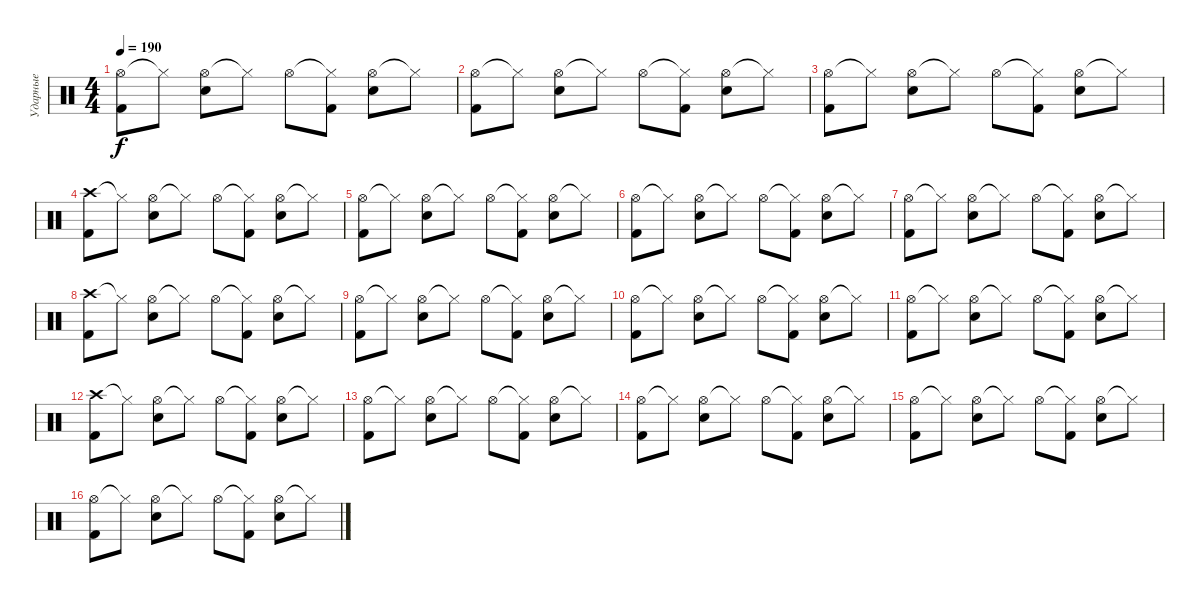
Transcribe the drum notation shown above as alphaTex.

\track ("Ударные" "Ударные") {instrument percussion}
\staff {score}
\articulation defaults
\ts (4 4)
\tempo 190
\clef neutral
\ks c
("Hi-Hat (open)" "Kick (hit) 2").8{dy f} "Hi-Hat (closed)"{t}.8 ("Hi-Hat (open)" "Snare (hit) 2").8 "Hi-Hat (closed)"{t}.8 "Hi-Hat (open)".8 ("Hi-Hat (closed)"{t} "Kick (hit) 2").8 ("Hi-Hat (open)" "Snare (hit) 2").8 "Hi-Hat (closed)"{t}.8 |
("Hi-Hat (open)" "Kick (hit) 2").8 "Hi-Hat (closed)"{t}.8 ("Hi-Hat (open)" "Snare (hit) 2").8 "Hi-Hat (closed)"{t}.8 "Hi-Hat (open)".8 ("Hi-Hat (closed)"{t} "Kick (hit) 2").8 ("Hi-Hat (open)" "Snare (hit) 2").8 "Hi-Hat (closed)"{t}.8 |
("Hi-Hat (open)" "Kick (hit) 2").8 "Hi-Hat (closed)"{t}.8 ("Hi-Hat (open)" "Snare (hit) 2").8 "Hi-Hat (closed)"{t}.8 "Hi-Hat (open)".8 ("Hi-Hat (closed)"{t} "Kick (hit) 2").8 ("Hi-Hat (open)" "Snare (hit) 2").8 "Hi-Hat (closed)"{t}.8 |
("Crash high (hit)" "Kick (hit) 2").8 "Hi-Hat (closed)"{t}.8 ("Hi-Hat (open)" "Snare (hit) 2").8 "Hi-Hat (closed)"{t}.8 "Hi-Hat (open)".8 ("Hi-Hat (closed)"{t} "Kick (hit) 2").8 ("Hi-Hat (open)" "Snare (hit) 2").8 "Hi-Hat (closed)"{t}.8 |
("Hi-Hat (open)" "Kick (hit) 2").8 "Hi-Hat (closed)"{t}.8 ("Hi-Hat (open)" "Snare (hit) 2").8 "Hi-Hat (closed)"{t}.8 "Hi-Hat (open)".8 ("Hi-Hat (closed)"{t} "Kick (hit) 2").8 ("Hi-Hat (open)" "Snare (hit) 2").8 "Hi-Hat (closed)"{t}.8 |
("Hi-Hat (open)" "Kick (hit) 2").8 "Hi-Hat (closed)"{t}.8 ("Hi-Hat (open)" "Snare (hit) 2").8 "Hi-Hat (closed)"{t}.8 "Hi-Hat (open)".8 ("Hi-Hat (closed)"{t} "Kick (hit) 2").8 ("Hi-Hat (open)" "Snare (hit) 2").8 "Hi-Hat (closed)"{t}.8 |
("Hi-Hat (open)" "Kick (hit) 2").8 "Hi-Hat (closed)"{t}.8 ("Hi-Hat (open)" "Snare (hit) 2").8 "Hi-Hat (closed)"{t}.8 "Hi-Hat (open)".8 ("Hi-Hat (closed)"{t} "Kick (hit) 2").8 ("Hi-Hat (open)" "Snare (hit) 2").8 "Hi-Hat (closed)"{t}.8 |
("Crash high (hit)" "Kick (hit) 2").8 "Hi-Hat (closed)"{t}.8 ("Hi-Hat (open)" "Snare (hit) 2").8 "Hi-Hat (closed)"{t}.8 "Hi-Hat (open)".8 ("Hi-Hat (closed)"{t} "Kick (hit) 2").8 ("Hi-Hat (open)" "Snare (hit) 2").8 "Hi-Hat (closed)"{t}.8 |
("Hi-Hat (open)" "Kick (hit) 2").8 "Hi-Hat (closed)"{t}.8 ("Hi-Hat (open)" "Snare (hit) 2").8 "Hi-Hat (closed)"{t}.8 "Hi-Hat (open)".8 ("Hi-Hat (closed)"{t} "Kick (hit) 2").8 ("Hi-Hat (open)" "Snare (hit) 2").8 "Hi-Hat (closed)"{t}.8 |
("Hi-Hat (open)" "Kick (hit) 2").8 "Hi-Hat (closed)"{t}.8 ("Hi-Hat (open)" "Snare (hit) 2").8 "Hi-Hat (closed)"{t}.8 "Hi-Hat (open)".8 ("Hi-Hat (closed)"{t} "Kick (hit) 2").8 ("Hi-Hat (open)" "Snare (hit) 2").8 "Hi-Hat (closed)"{t}.8 |
("Hi-Hat (open)" "Kick (hit) 2").8 "Hi-Hat (closed)"{t}.8 ("Hi-Hat (open)" "Snare (hit) 2").8 "Hi-Hat (closed)"{t}.8 "Hi-Hat (open)".8 ("Hi-Hat (closed)"{t} "Kick (hit) 2").8 ("Hi-Hat (open)" "Snare (hit) 2").8 "Hi-Hat (closed)"{t}.8 |
("Crash high (hit)" "Kick (hit) 2").8 "Hi-Hat (closed)"{t}.8 ("Hi-Hat (open)" "Snare (hit) 2").8 "Hi-Hat (closed)"{t}.8 "Hi-Hat (open)".8 ("Hi-Hat (closed)"{t} "Kick (hit) 2").8 ("Hi-Hat (open)" "Snare (hit) 2").8 "Hi-Hat (closed)"{t}.8 |
("Hi-Hat (open)" "Kick (hit) 2").8 "Hi-Hat (closed)"{t}.8 ("Hi-Hat (open)" "Snare (hit) 2").8 "Hi-Hat (closed)"{t}.8 "Hi-Hat (open)".8 ("Hi-Hat (closed)"{t} "Kick (hit) 2").8 ("Hi-Hat (open)" "Snare (hit) 2").8 "Hi-Hat (closed)"{t}.8 |
("Hi-Hat (open)" "Kick (hit) 2").8 "Hi-Hat (closed)"{t}.8 ("Hi-Hat (open)" "Snare (hit) 2").8 "Hi-Hat (closed)"{t}.8 "Hi-Hat (open)".8 ("Hi-Hat (closed)"{t} "Kick (hit) 2").8 ("Hi-Hat (open)" "Snare (hit) 2").8 "Hi-Hat (closed)"{t}.8 |
("Hi-Hat (open)" "Kick (hit) 2").8 "Hi-Hat (closed)"{t}.8 ("Hi-Hat (open)" "Snare (hit) 2").8 "Hi-Hat (closed)"{t}.8 "Hi-Hat (open)".8 ("Hi-Hat (closed)"{t} "Kick (hit) 2").8 ("Hi-Hat (open)" "Snare (hit) 2").8 "Hi-Hat (closed)"{t}.8 |
("Hi-Hat (open)" "Kick (hit) 2").8 "Hi-Hat (closed)"{t}.8 ("Hi-Hat (open)" "Snare (hit) 2").8 "Hi-Hat (closed)"{t}.8 "Hi-Hat (open)".8 ("Hi-Hat (closed)"{t} "Kick (hit) 2").8 ("Hi-Hat (open)" "Snare (hit) 2").8 "Hi-Hat (closed)"{t}.8
